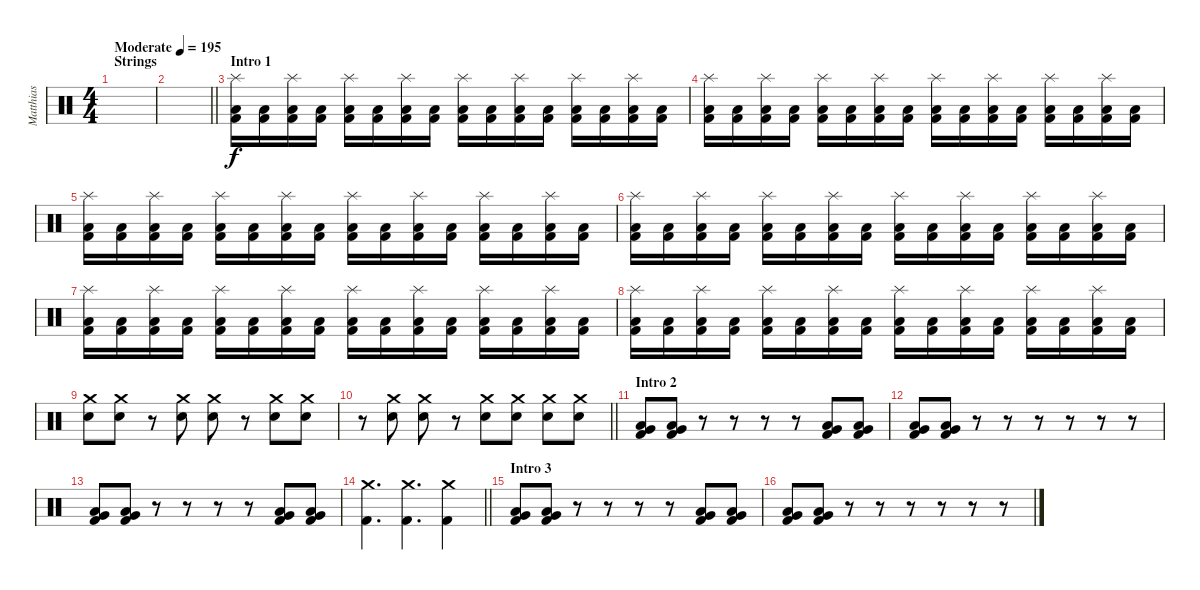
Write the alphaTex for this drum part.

\track ("Matthias" "Matthias") {instrument percussion}
\staff {score}
\articulation defaults
\ts (4 4)
\section ("" "Strings")
\tempo (195 "Moderate")
\clef neutral
\ks c
|
\barLineRight lightlight
|
\section ("" "Intro 1")
("Splash (hit)" "Low Tom (hit)" "Kick (hit) 2").16 ("Low Tom (hit)" "Kick (hit) 2").16 ("Splash (hit)" "Low Tom (hit)" "Kick (hit) 2").16 ("Low Tom (hit)" "Kick (hit) 2").16 ("Splash (hit)" "Low Tom (hit)" "Kick (hit) 2").16 ("Low Tom (hit)" "Kick (hit) 2").16 ("Splash (hit)" "Low Tom (hit)" "Kick (hit) 2").16 ("Low Tom (hit)" "Kick (hit) 2").16 ("Splash (hit)" "Low Tom (hit)" "Kick (hit) 2").16 ("Low Tom (hit)" "Kick (hit) 2").16 ("Splash (hit)" "Low Tom (hit)" "Kick (hit) 2").16 ("Low Tom (hit)" "Kick (hit) 2").16 ("Splash (hit)" "Low Tom (hit)" "Kick (hit) 2").16 ("Low Tom (hit)" "Kick (hit) 2").16 ("Splash (hit)" "Low Tom (hit)" "Kick (hit) 2").16 ("Low Tom (hit)" "Kick (hit) 2").16 |
("Splash (hit)" "Low Tom (hit)" "Kick (hit) 2").16 ("Low Tom (hit)" "Kick (hit) 2").16 ("Splash (hit)" "Low Tom (hit)" "Kick (hit) 2").16 ("Low Tom (hit)" "Kick (hit) 2").16 ("Splash (hit)" "Low Tom (hit)" "Kick (hit) 2").16 ("Low Tom (hit)" "Kick (hit) 2").16 ("Splash (hit)" "Low Tom (hit)" "Kick (hit) 2").16 ("Low Tom (hit)" "Kick (hit) 2").16 ("Splash (hit)" "Low Tom (hit)" "Kick (hit) 2").16 ("Low Tom (hit)" "Kick (hit) 2").16 ("Splash (hit)" "Low Tom (hit)" "Kick (hit) 2").16 ("Low Tom (hit)" "Kick (hit) 2").16 ("Splash (hit)" "Low Tom (hit)" "Kick (hit) 2").16 ("Low Tom (hit)" "Kick (hit) 2").16 ("Splash (hit)" "Low Tom (hit)" "Kick (hit) 2").16 ("Low Tom (hit)" "Kick (hit) 2").16 |
("Splash (hit)" "Low Tom (hit)" "Kick (hit) 2").16 ("Low Tom (hit)" "Kick (hit) 2").16 ("Splash (hit)" "Low Tom (hit)" "Kick (hit) 2").16 ("Low Tom (hit)" "Kick (hit) 2").16 ("Splash (hit)" "Low Tom (hit)" "Kick (hit) 2").16 ("Low Tom (hit)" "Kick (hit) 2").16 ("Splash (hit)" "Low Tom (hit)" "Kick (hit) 2").16 ("Low Tom (hit)" "Kick (hit) 2").16 ("Splash (hit)" "Low Tom (hit)" "Kick (hit) 2").16 ("Low Tom (hit)" "Kick (hit) 2").16 ("Splash (hit)" "Low Tom (hit)" "Kick (hit) 2").16 ("Low Tom (hit)" "Kick (hit) 2").16 ("Splash (hit)" "Low Tom (hit)" "Kick (hit) 2").16 ("Low Tom (hit)" "Kick (hit) 2").16 ("Splash (hit)" "Low Tom (hit)" "Kick (hit) 2").16 ("Low Tom (hit)" "Kick (hit) 2").16 |
("Splash (hit)" "Low Tom (hit)" "Kick (hit) 2").16 ("Low Tom (hit)" "Kick (hit) 2").16 ("Splash (hit)" "Low Tom (hit)" "Kick (hit) 2").16 ("Low Tom (hit)" "Kick (hit) 2").16 ("Splash (hit)" "Low Tom (hit)" "Kick (hit) 2").16 ("Low Tom (hit)" "Kick (hit) 2").16 ("Splash (hit)" "Low Tom (hit)" "Kick (hit) 2").16 ("Low Tom (hit)" "Kick (hit) 2").16 ("Splash (hit)" "Low Tom (hit)" "Kick (hit) 2").16 ("Low Tom (hit)" "Kick (hit) 2").16 ("Splash (hit)" "Low Tom (hit)" "Kick (hit) 2").16 ("Low Tom (hit)" "Kick (hit) 2").16 ("Splash (hit)" "Low Tom (hit)" "Kick (hit) 2").16 ("Low Tom (hit)" "Kick (hit) 2").16 ("Splash (hit)" "Low Tom (hit)" "Kick (hit) 2").16 ("Low Tom (hit)" "Kick (hit) 2").16 |
("Splash (hit)" "Low Tom (hit)" "Kick (hit) 2").16 ("Low Tom (hit)" "Kick (hit) 2").16 ("Splash (hit)" "Low Tom (hit)" "Kick (hit) 2").16 ("Low Tom (hit)" "Kick (hit) 2").16 ("Splash (hit)" "Low Tom (hit)" "Kick (hit) 2").16 ("Low Tom (hit)" "Kick (hit) 2").16 ("Splash (hit)" "Low Tom (hit)" "Kick (hit) 2").16 ("Low Tom (hit)" "Kick (hit) 2").16 ("Splash (hit)" "Low Tom (hit)" "Kick (hit) 2").16 ("Low Tom (hit)" "Kick (hit) 2").16 ("Splash (hit)" "Low Tom (hit)" "Kick (hit) 2").16 ("Low Tom (hit)" "Kick (hit) 2").16 ("Splash (hit)" "Low Tom (hit)" "Kick (hit) 2").16 ("Low Tom (hit)" "Kick (hit) 2").16 ("Splash (hit)" "Low Tom (hit)" "Kick (hit) 2").16 ("Low Tom (hit)" "Kick (hit) 2").16 |
("Splash (hit)" "Low Tom (hit)" "Kick (hit) 2").16 ("Low Tom (hit)" "Kick (hit) 2").16 ("Splash (hit)" "Low Tom (hit)" "Kick (hit) 2").16 ("Low Tom (hit)" "Kick (hit) 2").16 ("Splash (hit)" "Low Tom (hit)" "Kick (hit) 2").16 ("Low Tom (hit)" "Kick (hit) 2").16 ("Splash (hit)" "Low Tom (hit)" "Kick (hit) 2").16 ("Low Tom (hit)" "Kick (hit) 2").16 ("Splash (hit)" "Low Tom (hit)" "Kick (hit) 2").16 ("Low Tom (hit)" "Kick (hit) 2").16 ("Splash (hit)" "Low Tom (hit)" "Kick (hit) 2").16 ("Low Tom (hit)" "Kick (hit) 2").16 ("Splash (hit)" "Low Tom (hit)" "Kick (hit) 2").16 ("Low Tom (hit)" "Kick (hit) 2").16 ("Splash (hit)" "Low Tom (hit)" "Kick (hit) 2").16 ("Low Tom (hit)" "Kick (hit) 2").16 |
("Crash medium (hit)" "Electric Snare (hit)").8 ("Crash medium (hit)" "Electric Snare (hit)").8 r.8 ("Crash medium (hit)" "Electric Snare (hit)").8 ("Crash medium (hit)" "Electric Snare (hit)").8 r.8 ("Crash medium (hit)" "Electric Snare (hit)").8 ("Crash medium (hit)" "Electric Snare (hit)").8 |
\barLineRight lightlight
r.8 ("Crash medium (hit)" "Electric Snare (hit)").8 ("Crash medium (hit)" "Electric Snare (hit)").8 r.8 ("Crash medium (hit)" "Electric Snare (hit)").8 ("Crash medium (hit)" "Electric Snare (hit)").8 ("Crash medium (hit)" "Electric Snare (hit)").8 ("Crash medium (hit)" "Electric Snare (hit)").8 |
\section ("" "Intro 2")
("Low Tom (hit)" "Very Low Tom (hit)" "Kick (hit) 2").8 ("Low Tom (hit)" "Very Low Tom (hit)" "Kick (hit) 2").8 r.8 r.8 r.8 r.8 ("Low Tom (hit)" "Very Low Tom (hit)" "Kick (hit) 2").8 ("Low Tom (hit)" "Very Low Tom (hit)" "Kick (hit) 2").8 |
("Low Tom (hit)" "Very Low Tom (hit)" "Kick (hit) 2").8 ("Low Tom (hit)" "Very Low Tom (hit)" "Kick (hit) 2").8 r.8 r.8 r.8 r.8 r.8 r.8 |
("Low Tom (hit)" "Very Low Tom (hit)" "Kick (hit) 2").8 ("Low Tom (hit)" "Very Low Tom (hit)" "Kick (hit) 2").8 r.8 r.8 r.8 r.8 ("Low Tom (hit)" "Very Low Tom (hit)" "Kick (hit) 2").8 ("Low Tom (hit)" "Very Low Tom (hit)" "Kick (hit) 2").8 |
\barLineRight lightlight
("Crash medium (hit)" "Kick (hit) 2").4{d} ("Crash medium (hit)" "Kick (hit) 2").4{d} ("Crash medium (hit)" "Kick (hit) 2").4 |
\section ("" "Intro 3")
("Low Tom (hit)" "Very Low Tom (hit)" "Kick (hit) 2").8 ("Low Tom (hit)" "Very Low Tom (hit)" "Kick (hit) 2").8 r.8 r.8 r.8 r.8 ("Low Tom (hit)" "Very Low Tom (hit)" "Kick (hit) 2").8 ("Low Tom (hit)" "Very Low Tom (hit)" "Kick (hit) 2").8 |
("Low Tom (hit)" "Very Low Tom (hit)" "Kick (hit) 2").8 ("Low Tom (hit)" "Very Low Tom (hit)" "Kick (hit) 2").8 r.8 r.8 r.8 r.8 r.8 r.8
